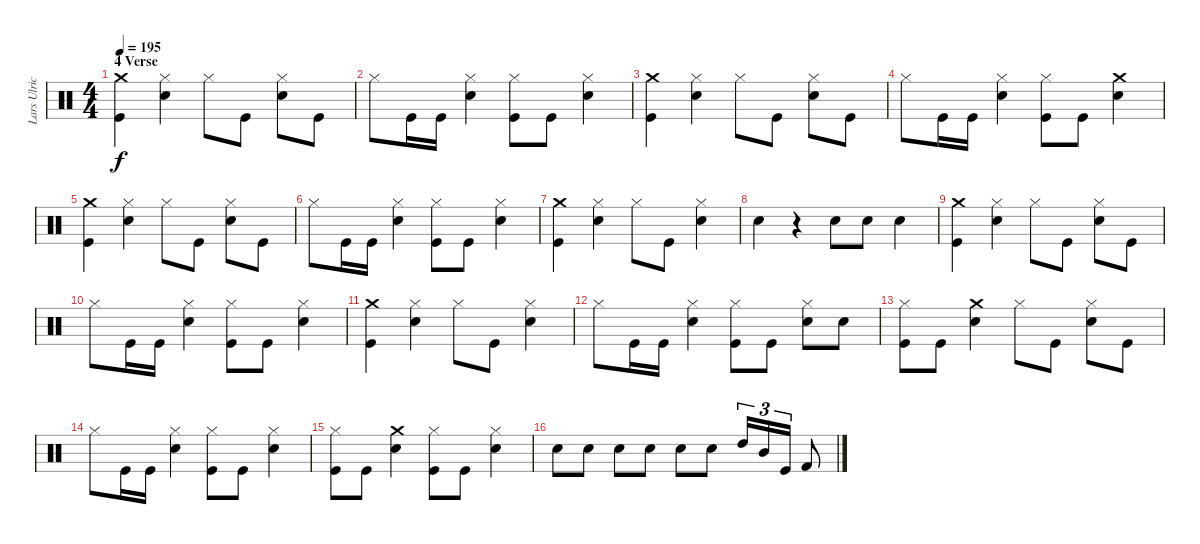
\track ("Lars Ulrich (Drums)" "Lars Ulric") {instrument percussion}
\staff {score}
\articulation defaults
\ts (4 4)
\section ("" "4 Verse")
\tempo 195
\clef neutral
\ks c
("Kick (hit)" "Crash medium (hit)").4{dy f} ("Snare (hit) 2" "Hi-Hat (closed)").4 "Hi-Hat (closed)".8 "Kick (hit)".8 ("Snare (hit) 2" "Hi-Hat (closed)").8 "Kick (hit)".8 |
"Hi-Hat (closed)".8 "Kick (hit)".16 "Kick (hit)".16 ("Snare (hit) 2" "Hi-Hat (closed)").4 ("Kick (hit)" "Hi-Hat (closed)").8 "Kick (hit)".8 ("Snare (hit) 2" "Hi-Hat (closed)").4 |
("Kick (hit)" "Crash medium (hit)").4 ("Hi-Hat (closed)" "Snare (hit) 2").4 "Hi-Hat (closed)".8 "Kick (hit)".8 ("Snare (hit) 2" "Hi-Hat (closed)").8 "Kick (hit)".8 |
"Hi-Hat (closed)".8 "Kick (hit)".16 "Kick (hit)".16 ("Snare (hit) 2" "Hi-Hat (closed)").4 ("Kick (hit)" "Hi-Hat (closed)").8 "Kick (hit)".8 ("Crash medium (hit)" "Snare (hit) 2").4 |
("Kick (hit)" "Crash medium (hit)").4 ("Hi-Hat (closed)" "Snare (hit) 2").4 "Hi-Hat (closed)".8 "Kick (hit)".8 ("Snare (hit) 2" "Hi-Hat (closed)").8 "Kick (hit)".8 |
"Hi-Hat (closed)".8 "Kick (hit)".16 "Kick (hit)".16 ("Snare (hit) 2" "Hi-Hat (closed)").4 ("Kick (hit)" "Hi-Hat (closed)").8 "Kick (hit)".8 ("Snare (hit) 2" "Hi-Hat (closed)").4 |
("Kick (hit)" "Crash medium (hit)").4 ("Hi-Hat (closed)" "Snare (hit) 2").4 "Hi-Hat (closed)".8 "Kick (hit)".8 ("Snare (hit) 2" "Hi-Hat (closed)").4 |
"Snare (hit) 2".4 r.4 "Snare (hit) 2".8 "Snare (hit) 2".8 "Snare (hit) 2".4 |
("Kick (hit)" "Crash medium (hit)").4 ("Hi-Hat (closed)" "Snare (hit) 2").4 "Hi-Hat (closed)".8 "Kick (hit)".8 ("Snare (hit) 2" "Hi-Hat (closed)").8 "Kick (hit)".8 |
"Hi-Hat (closed)".8 "Kick (hit)".16 "Kick (hit)".16 ("Snare (hit) 2" "Hi-Hat (closed)").4 ("Kick (hit)" "Hi-Hat (closed)").8 "Kick (hit)".8 ("Snare (hit) 2" "Hi-Hat (closed)").4 |
("Kick (hit)" "Crash medium (hit)").4 ("Hi-Hat (closed)" "Snare (hit) 2").4 "Hi-Hat (closed)".8 "Kick (hit)".8 ("Snare (hit) 2" "Hi-Hat (closed)").4 |
"Hi-Hat (closed)".8 "Kick (hit)".16 "Kick (hit)".16 ("Snare (hit) 2" "Hi-Hat (closed)").4 ("Kick (hit)" "Hi-Hat (closed)").8 "Kick (hit)".8 ("Snare (hit) 2" "Hi-Hat (closed)").8 "Snare (hit) 2".8 |
("Kick (hit)" "Hi-Hat (closed)").8 "Kick (hit)".8 ("Crash medium (hit)" "Snare (hit) 2").4 "Hi-Hat (closed)".8 "Kick (hit)".8 ("Snare (hit) 2" "Hi-Hat (closed)").8 "Kick (hit)".8 |
"Hi-Hat (closed)".8 "Kick (hit)".16 "Kick (hit)".16 ("Snare (hit) 2" "Hi-Hat (closed)").4 ("Kick (hit)" "Hi-Hat (closed)").8 "Kick (hit)".8 ("Snare (hit) 2" "Hi-Hat (closed)").4 |
("Kick (hit)" "Hi-Hat (closed)").8 "Kick (hit)".8 ("Snare (hit) 2" "Crash medium (hit)").4 ("Kick (hit)" "Hi-Hat (closed)").8 "Kick (hit)".8 ("Snare (hit) 2" "Hi-Hat (closed)").4 |
"Snare (hit) 2".8 "Snare (hit) 2".8 "Snare (hit) 2".8 "Snare (hit) 2".8 "Snare (hit) 2".8 "Snare (hit) 2".8 "High Tom (hit)".16{tu (3 2)} "Mid Tom (hit)".16{tu (3 2)} "Kick (hit)".16{tu (3 2)} "Kick (hit) 2".8
